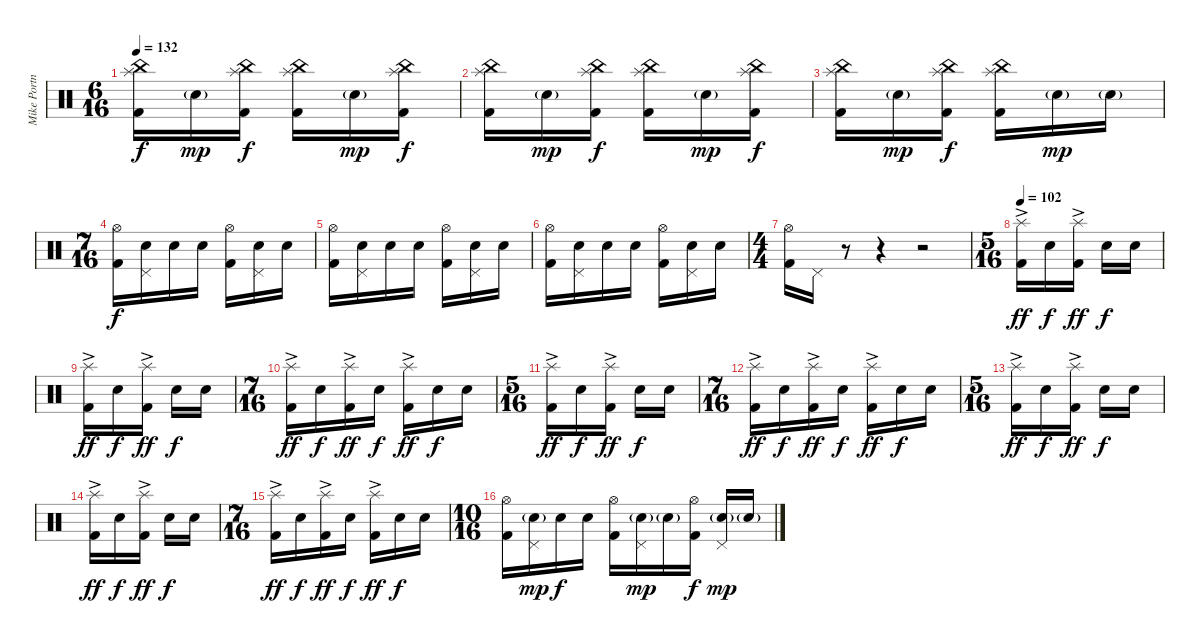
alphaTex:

\track ("Mike Portnoy" "Mike Portn") {instrument percussion}
\staff {score}
\articulation defaults
\ts (6 16)
\tempo 132
\clef neutral
\ks c
("Splash (hit)" "China (hit)" "Kick (hit) 2").16{dy f} "Electric Snare (hit)"{g}.16{dy mp} ("Splash (hit)" "China (hit)" "Kick (hit) 2").16{dy f} ("Splash (hit)" "China (hit)" "Kick (hit) 2").16 "Electric Snare (hit)"{g}.16{dy mp} ("Splash (hit)" "China (hit)" "Kick (hit) 2").16{dy f} |
("Splash (hit)" "China (hit)" "Kick (hit) 2").16 "Electric Snare (hit)"{g}.16{dy mp} ("Splash (hit)" "China (hit)" "Kick (hit) 2").16{dy f} ("Splash (hit)" "China (hit)" "Kick (hit) 2").16 "Electric Snare (hit)"{g}.16{dy mp} ("Splash (hit)" "China (hit)" "Kick (hit) 2").16{dy f} |
("Splash (hit)" "China (hit)" "Kick (hit) 2").16 "Electric Snare (hit)"{g}.16{dy mp} ("Splash (hit)" "China (hit)" "Kick (hit) 2").16{dy f} ("Splash (hit)" "China (hit)" "Kick (hit) 2").16 "Electric Snare (hit)"{g}.16{dy mp} "Electric Snare (hit)"{g}.16 |
\ts (7 16)
("Hi-Hat (open)" "Kick (hit) 2").16{dy f} ("Pedal Hi-Hat (hit)" "Electric Snare (hit)").16 "Electric Snare (hit)".16 "Electric Snare (hit)".16 ("Hi-Hat (open)" "Kick (hit) 2").16 ("Pedal Hi-Hat (hit)" "Electric Snare (hit)").16 "Electric Snare (hit)".16 |
("Hi-Hat (open)" "Kick (hit) 2").16 ("Pedal Hi-Hat (hit)" "Electric Snare (hit)").16 "Electric Snare (hit)".16 "Electric Snare (hit)".16 ("Hi-Hat (open)" "Kick (hit) 2").16 ("Pedal Hi-Hat (hit)" "Electric Snare (hit)").16 "Electric Snare (hit)".16 |
("Hi-Hat (open)" "Kick (hit) 2").16 ("Pedal Hi-Hat (hit)" "Electric Snare (hit)").16 "Electric Snare (hit)".16 "Electric Snare (hit)".16 ("Hi-Hat (open)" "Kick (hit) 2").16 ("Pedal Hi-Hat (hit)" "Electric Snare (hit)").16 "Electric Snare (hit)".16 |
\ts (4 4)
("Hi-Hat (open)" "Kick (hit) 2").16 "Pedal Hi-Hat (hit)".16 r.8 r.4 r.2 |
\ts (5 16)
\tempo 102
("Splash (hit)"{ac} "Kick (hit) 2"{ac}).16{dy ff} "Electric Snare (hit)".16{dy f} ("Splash (hit)"{ac} "Kick (hit) 2"{ac}).16{dy ff} "Electric Snare (hit)".16{dy f} "Electric Snare (hit)".16 |
("Splash (hit)"{ac} "Kick (hit) 2"{ac}).16{dy ff} "Electric Snare (hit)".16{dy f} ("Splash (hit)"{ac} "Kick (hit) 2"{ac}).16{dy ff} "Electric Snare (hit)".16{dy f} "Electric Snare (hit)".16 |
\ts (7 16)
("Splash (hit)"{ac} "Kick (hit) 2"{ac}).16{dy ff} "Electric Snare (hit)".16{dy f} ("Splash (hit)"{ac} "Kick (hit) 2"{ac}).16{dy ff} "Electric Snare (hit)".16{dy f} ("Splash (hit)"{ac} "Kick (hit) 2"{ac}).16{dy ff} "Electric Snare (hit)".16{dy f} "Electric Snare (hit)".16 |
\ts (5 16)
("Splash (hit)"{ac} "Kick (hit) 2"{ac}).16{dy ff} "Electric Snare (hit)".16{dy f} ("Splash (hit)"{ac} "Kick (hit) 2"{ac}).16{dy ff} "Electric Snare (hit)".16{dy f} "Electric Snare (hit)".16 |
\ts (7 16)
("Splash (hit)"{ac} "Kick (hit) 2"{ac}).16{dy ff} "Electric Snare (hit)".16{dy f} ("Splash (hit)"{ac} "Kick (hit) 2"{ac}).16{dy ff} "Electric Snare (hit)".16{dy f} ("Splash (hit)"{ac} "Kick (hit) 2"{ac}).16{dy ff} "Electric Snare (hit)".16{dy f} "Electric Snare (hit)".16 |
\ts (5 16)
("Splash (hit)"{ac} "Kick (hit) 2"{ac}).16{dy ff} "Electric Snare (hit)".16{dy f} ("Splash (hit)"{ac} "Kick (hit) 2"{ac}).16{dy ff} "Electric Snare (hit)".16{dy f} "Electric Snare (hit)".16 |
("Splash (hit)"{ac} "Kick (hit) 2"{ac}).16{dy ff} "Electric Snare (hit)".16{dy f} ("Splash (hit)"{ac} "Kick (hit) 2"{ac}).16{dy ff} "Electric Snare (hit)".16{dy f} "Electric Snare (hit)".16 |
\ts (7 16)
("Splash (hit)"{ac} "Kick (hit) 2"{ac}).16{dy ff} "Electric Snare (hit)".16{dy f} ("Splash (hit)"{ac} "Kick (hit) 2"{ac}).16{dy ff} "Electric Snare (hit)".16{dy f} ("Splash (hit)"{ac} "Kick (hit) 2"{ac}).16{dy ff} "Electric Snare (hit)".16{dy f} "Electric Snare (hit)".16 |
\ts (10 16)
("Hi-Hat (open)" "Kick (hit) 2").16 ("Pedal Hi-Hat (hit)" "Electric Snare (hit)"{g}).16{dy mp} "Electric Snare (hit)".16{dy f} "Electric Snare (hit)".16 ("Hi-Hat (open)" "Kick (hit) 2").16 ("Pedal Hi-Hat (hit)" "Electric Snare (hit)"{g}).16{dy mp} "Electric Snare (hit)"{g}.16 ("Hi-Hat (open)" "Kick (hit) 2").16{dy f} ("Pedal Hi-Hat (hit)" "Electric Snare (hit)"{g}).16{dy mp} "Electric Snare (hit)"{g}.16
